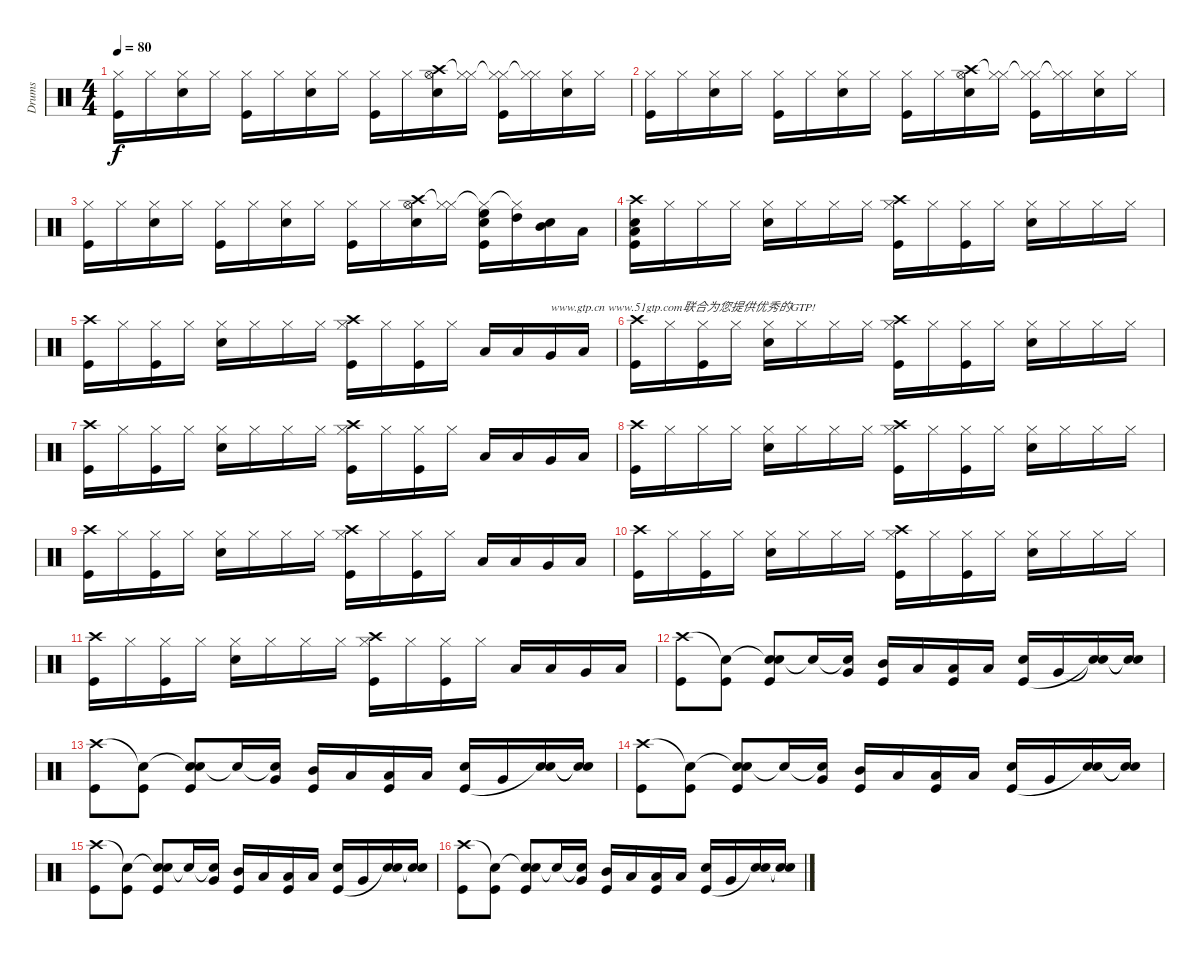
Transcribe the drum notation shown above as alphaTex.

\track ("Drums" "Drums") {instrument percussion}
\staff {score}
\articulation defaults
\ts (4 4)
\tempo 80
\clef neutral
\ks c
("Hi-Hat (closed)" "Kick (hit)").16{dy f} "Hi-Hat (closed)".16 ("Hi-Hat (closed)" "Snare (hit) 2").16 "Hi-Hat (closed)".16 ("Hi-Hat (closed)" "Kick (hit)").16 "Hi-Hat (closed)".16 ("Hi-Hat (closed)" "Snare (hit) 2").16 "Hi-Hat (closed)".16 ("Hi-Hat (closed)" "Kick (hit)").16 "Hi-Hat (closed)".16 ("Crash high (hit)" "Hi-Hat (open)" "Snare (hit) 2").16 ("Hi-Hat (closed)"{t} "Hi-Hat (closed)").16 ("Hi-Hat (closed)"{t} "Hi-Hat (closed)" "Kick (hit)").16 ("Hi-Hat (closed)"{t} "Hi-Hat (closed)").16 ("Hi-Hat (closed)" "Snare (hit) 2").16 "Hi-Hat (closed)".16 |
("Hi-Hat (closed)" "Kick (hit)").16 "Hi-Hat (closed)".16 ("Hi-Hat (closed)" "Snare (hit) 2").16 "Hi-Hat (closed)".16 ("Hi-Hat (closed)" "Kick (hit)").16 "Hi-Hat (closed)".16 ("Hi-Hat (closed)" "Snare (hit) 2").16 "Hi-Hat (closed)".16 ("Hi-Hat (closed)" "Kick (hit)").16 "Hi-Hat (closed)".16 ("Crash high (hit)" "Hi-Hat (open)" "Snare (hit) 2").16 ("Hi-Hat (closed)"{t} "Hi-Hat (closed)").16 ("Hi-Hat (closed)"{t} "Hi-Hat (closed)" "Kick (hit)").16 ("Hi-Hat (closed)"{t} "Hi-Hat (closed)").16 ("Hi-Hat (closed)" "Snare (hit) 2").16 "Hi-Hat (closed)".16 |
("Hi-Hat (closed)" "Kick (hit)").16 "Hi-Hat (closed)".16 ("Hi-Hat (closed)" "Snare (hit) 2").16 "Hi-Hat (closed)".16 ("Hi-Hat (closed)" "Kick (hit)").16 "Hi-Hat (closed)".16 ("Hi-Hat (closed)" "Snare (hit) 2").16 "Hi-Hat (closed)".16 ("Hi-Hat (closed)" "Kick (hit)").16 "Hi-Hat (closed)".16 ("Crash high (hit)" "Hi-Hat (open)" "Snare (hit) 2").16 ("Hi-Hat (closed)"{t} "Hi-Hat (closed)").16 ("Hi-Hat (closed)"{t} "Snare (hit) 2" "High Floor Tom (hit)" "Kick (hit)").16 ("Hi-Hat (closed)"{t} "High Tom (hit)").16 ("Snare (hit) 2" "Mid Tom (hit)").16 "Low Tom (hit)".16 |
("Crash high (hit)" "Snare (hit) 2" "Low Floor Tom (hit)" "Kick (hit)").16 "Hi-Hat (closed)".16 "Hi-Hat (closed)".16 "Hi-Hat (closed)".16 ("Hi-Hat (closed)" "Snare (hit) 2").16 "Hi-Hat (closed)".16 "Hi-Hat (closed)".16 "Hi-Hat (closed)".16 ("Crash high (hit)" "Hi-Hat (closed)" "Kick (hit)").16 "Hi-Hat (closed)".16 ("Hi-Hat (closed)" "Kick (hit)").16 "Hi-Hat (closed)".16 ("Hi-Hat (closed)" "Snare (hit) 2").16 "Hi-Hat (closed)".16 "Hi-Hat (closed)".16 "Hi-Hat (closed)".16 |
("Crash high (hit)" "Kick (hit)").16 "Hi-Hat (closed)".16 ("Hi-Hat (closed)" "Kick (hit)").16 "Hi-Hat (closed)".16 ("Hi-Hat (closed)" "Snare (hit) 2").16 "Hi-Hat (closed)".16 "Hi-Hat (closed)".16 "Hi-Hat (closed)".16 ("Crash high (hit)" "Hi-Hat (closed)" "Kick (hit)").16 "Hi-Hat (closed)".16 ("Hi-Hat (closed)" "Kick (hit)").16 "Hi-Hat (closed)".16 "Low Tom (hit)".16 "Low Tom (hit)".16 "Very Low Tom (hit)".16{txt "www.gtp.cn www.51gtp.com联合为您提供优秀的GTP!"} "Low Floor Tom (hit)".16 |
("Crash high (hit)" "Kick (hit)").16 "Hi-Hat (closed)".16 ("Hi-Hat (closed)" "Kick (hit)").16 "Hi-Hat (closed)".16 ("Hi-Hat (closed)" "Snare (hit) 2").16 "Hi-Hat (closed)".16 "Hi-Hat (closed)".16 "Hi-Hat (closed)".16 ("Crash high (hit)" "Hi-Hat (closed)" "Kick (hit)").16 "Hi-Hat (closed)".16 ("Hi-Hat (closed)" "Kick (hit)").16 "Hi-Hat (closed)".16 ("Hi-Hat (closed)" "Snare (hit) 2").16 "Hi-Hat (closed)".16 "Hi-Hat (closed)".16 "Hi-Hat (closed)".16 |
("Crash high (hit)" "Kick (hit)").16 "Hi-Hat (closed)".16 ("Hi-Hat (closed)" "Kick (hit)").16 "Hi-Hat (closed)".16 ("Hi-Hat (closed)" "Snare (hit) 2").16 "Hi-Hat (closed)".16 "Hi-Hat (closed)".16 "Hi-Hat (closed)".16 ("Crash high (hit)" "Hi-Hat (closed)" "Kick (hit)").16 "Hi-Hat (closed)".16 ("Hi-Hat (closed)" "Kick (hit)").16 "Hi-Hat (closed)".16 "Low Tom (hit)".16 "Low Tom (hit)".16 "Very Low Tom (hit)".16 "Low Floor Tom (hit)".16 |
("Crash high (hit)" "Kick (hit)").16 "Hi-Hat (closed)".16 "Hi-Hat (closed)".16 "Hi-Hat (closed)".16 ("Hi-Hat (closed)" "Snare (hit) 2").16 "Hi-Hat (closed)".16 "Hi-Hat (closed)".16 "Hi-Hat (closed)".16 ("Crash high (hit)" "Hi-Hat (closed)" "Kick (hit)").16 "Hi-Hat (closed)".16 ("Hi-Hat (closed)" "Kick (hit)").16 "Hi-Hat (closed)".16 ("Hi-Hat (closed)" "Snare (hit) 2").16 "Hi-Hat (closed)".16 "Hi-Hat (closed)".16 "Hi-Hat (closed)".16 |
("Crash high (hit)" "Kick (hit)").16 "Hi-Hat (closed)".16 ("Hi-Hat (closed)" "Kick (hit)").16 "Hi-Hat (closed)".16 ("Hi-Hat (closed)" "Snare (hit) 2").16 "Hi-Hat (closed)".16 "Hi-Hat (closed)".16 "Hi-Hat (closed)".16 ("Crash high (hit)" "Hi-Hat (closed)" "Kick (hit)").16 "Hi-Hat (closed)".16 ("Hi-Hat (closed)" "Kick (hit)").16 "Hi-Hat (closed)".16 "Low Tom (hit)".16 "Low Tom (hit)".16 "Very Low Tom (hit)".16 "Low Floor Tom (hit)".16 |
("Crash high (hit)" "Kick (hit)").16 "Hi-Hat (closed)".16 ("Hi-Hat (closed)" "Kick (hit)").16 "Hi-Hat (closed)".16 ("Hi-Hat (closed)" "Snare (hit) 2").16 "Hi-Hat (closed)".16 "Hi-Hat (closed)".16 "Hi-Hat (closed)".16 ("Crash high (hit)" "Hi-Hat (closed)" "Kick (hit)").16 "Hi-Hat (closed)".16 ("Hi-Hat (closed)" "Kick (hit)").16 "Hi-Hat (closed)".16 ("Hi-Hat (closed)" "Snare (hit) 2").16 "Hi-Hat (closed)".16 "Hi-Hat (closed)".16 "Hi-Hat (closed)".16 |
("Crash high (hit)" "Kick (hit)").16 "Hi-Hat (closed)".16 ("Hi-Hat (closed)" "Kick (hit)").16 "Hi-Hat (closed)".16 ("Hi-Hat (closed)" "Snare (hit) 2").16 "Hi-Hat (closed)".16 "Hi-Hat (closed)".16 "Hi-Hat (closed)".16 ("Crash high (hit)" "Hi-Hat (closed)" "Kick (hit)").16 "Hi-Hat (closed)".16 ("Hi-Hat (closed)" "Kick (hit)").16 "Hi-Hat (closed)".16 "Low Tom (hit)".16 "Low Tom (hit)".16 "Very Low Tom (hit)".16 "Low Floor Tom (hit)".16 |
("Crash high (hit)" "Kick (hit)").8 ("Snare (hit)"{t} "Kick (hit)").8 ("Snare (hit)"{t} "Snare (hit) 2" "Kick (hit)").8 "Snare (hit)"{t}.16 ("Snare (hit)"{t} "Very Low Tom (hit)").16 ("Mid Tom (hit)" "Kick (hit)").16 "Low Tom (hit)".16 ("Low Tom (hit)" "Kick (hit)").16 "Low Tom (hit)".16 ("Snare (hit) 2" "Kick (hit)").16 "Very Low Tom (hit)".16 ("Snare (hit)"{t} "Snare (hit)"{t}).16 ("Snare (hit)"{t} "Snare (hit)"{t}).16 |
("Crash high (hit)" "Kick (hit)").8 ("Snare (hit)"{t} "Kick (hit)").8 ("Snare (hit)"{t} "Snare (hit) 2" "Kick (hit)").8 "Snare (hit)"{t}.16 ("Snare (hit)"{t} "Very Low Tom (hit)").16 ("Mid Tom (hit)" "Kick (hit)").16 "Low Tom (hit)".16 ("Low Tom (hit)" "Kick (hit)").16 "Low Tom (hit)".16 ("Snare (hit) 2" "Kick (hit)").16 "Very Low Tom (hit)".16 ("Snare (hit) 2" "Snare (hit)"{t}).16 ("Snare (hit) 2"{t} "Snare (hit)"{t}).16 |
("Crash high (hit)" "Kick (hit)").8 ("Snare (hit)"{t} "Kick (hit)").8 ("Snare (hit)"{t} "Snare (hit) 2" "Kick (hit)").8 "Snare (hit)"{t}.16 ("Snare (hit)"{t} "Very Low Tom (hit)").16 ("Mid Tom (hit)" "Kick (hit)").16 "Low Tom (hit)".16 ("Low Tom (hit)" "Kick (hit)").16 "Low Tom (hit)".16 ("Snare (hit) 2" "Kick (hit)").16 "Very Low Tom (hit)".16 ("Snare (hit) 2" "Snare (hit)"{t}).16 ("Snare (hit)"{t} "Snare (hit)"{t}).16 |
("Crash high (hit)" "Kick (hit)").8 ("Snare (hit)"{t} "Kick (hit)").8 ("Snare (hit)"{t} "Snare (hit) 2" "Kick (hit)").8 "Snare (hit)"{t}.16 ("Snare (hit)"{t} "Very Low Tom (hit)").16 ("Mid Tom (hit)" "Kick (hit)").16 "Low Tom (hit)".16 ("Low Tom (hit)" "Kick (hit)").16 "Low Tom (hit)".16 ("Snare (hit) 2" "Kick (hit)").16 "Very Low Tom (hit)".16 ("Snare (hit) 2" "Snare (hit)"{t}).16 ("Snare (hit)"{t} "Snare (hit)"{t}).16 |
("Crash high (hit)" "Kick (hit)").8 ("Snare (hit)"{t} "Kick (hit)").8 ("Snare (hit)"{t} "Snare (hit) 2" "Kick (hit)").8 "Snare (hit)"{t}.16 ("Snare (hit)"{t} "Very Low Tom (hit)").16 ("Mid Tom (hit)" "Kick (hit)").16 "Low Tom (hit)".16 ("Low Tom (hit)" "Kick (hit)").16 "Low Tom (hit)".16 ("Snare (hit) 2" "Kick (hit)").16 "Very Low Tom (hit)".16 ("Snare (hit) 2" "Snare (hit)"{t}).16 ("Snare (hit)"{t} "Snare (hit)"{t}).16
